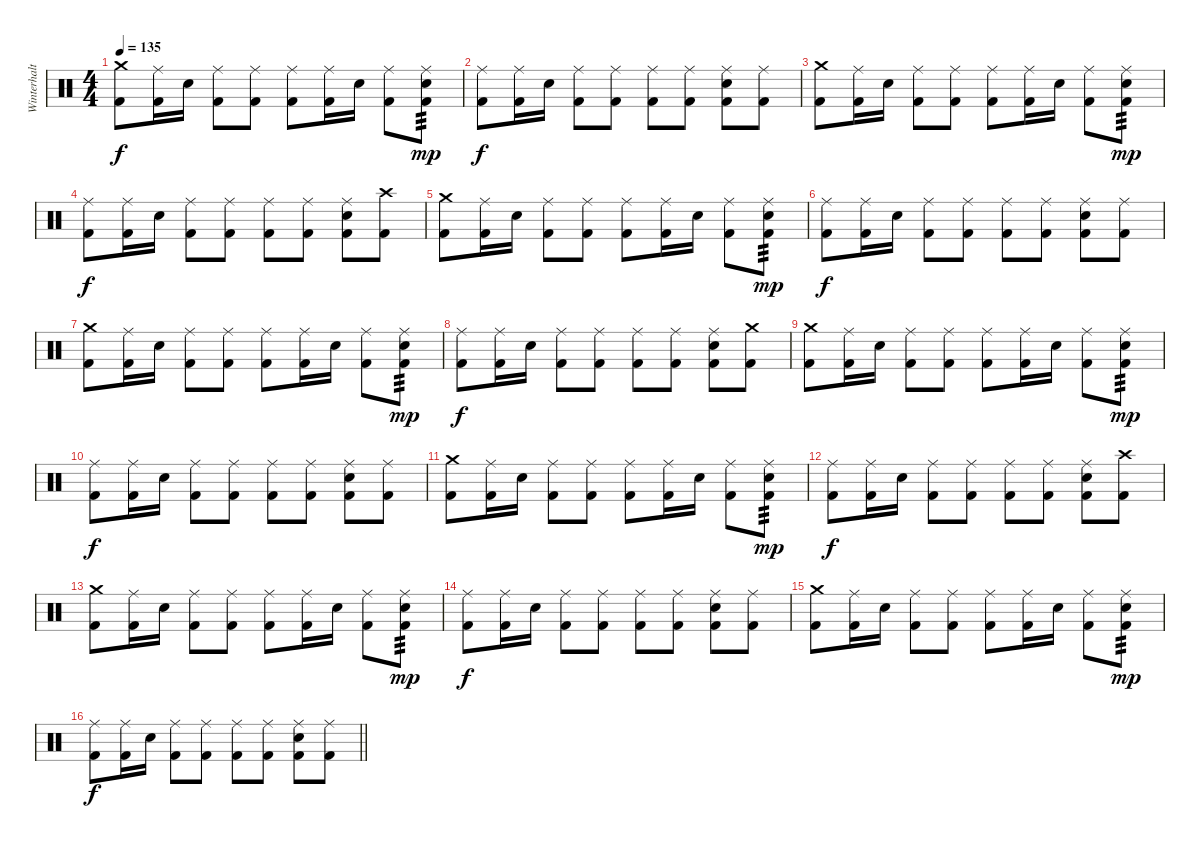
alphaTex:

\track ("Winterhalter" "Winterhalt") {instrument percussion}
\staff {score}
\articulation defaults
\ts (4 4)
\tempo 135
\clef neutral
\ks c
("Crash medium (hit)" "Kick (hit) 2").8{dy f} ("Ride (middle)" "Kick (hit) 2").16 "Snare (hit) 2".16 ("Ride (middle)" "Kick (hit) 2").8 ("Ride (middle)" "Kick (hit) 2").8 ("Ride (middle)" "Kick (hit) 2").8 ("Ride (middle)" "Kick (hit) 2").16 "Snare (hit) 2".16 ("Ride (middle)" "Kick (hit) 2").8 ("Ride (middle)" "Snare (hit) 2" "Kick (hit) 2").8{tp 3 dy mp} |
("Ride (middle)" "Kick (hit) 2").8{dy f} ("Ride (middle)" "Kick (hit) 2").16 "Snare (hit) 2".16 ("Ride (middle)" "Kick (hit) 2").8 ("Ride (middle)" "Kick (hit) 2").8 ("Ride (middle)" "Kick (hit) 2").8 ("Ride (middle)" "Kick (hit) 2").8 ("Ride (middle)" "Snare (hit) 2" "Kick (hit) 2").8 ("Ride (middle)" "Kick (hit) 2").8 |
("Crash medium (hit)" "Kick (hit) 2").8 ("Ride (middle)" "Kick (hit) 2").16 "Snare (hit) 2".16 ("Ride (middle)" "Kick (hit) 2").8 ("Ride (middle)" "Kick (hit) 2").8 ("Ride (middle)" "Kick (hit) 2").8 ("Ride (middle)" "Kick (hit) 2").16 "Snare (hit) 2".16 ("Ride (middle)" "Kick (hit) 2").8 ("Ride (middle)" "Snare (hit) 2" "Kick (hit) 2").8{tp 3 dy mp} |
("Ride (middle)" "Kick (hit) 2").8{dy f} ("Ride (middle)" "Kick (hit) 2").16 "Snare (hit) 2".16 ("Ride (middle)" "Kick (hit) 2").8 ("Ride (middle)" "Kick (hit) 2").8 ("Ride (middle)" "Kick (hit) 2").8 ("Ride (middle)" "Kick (hit) 2").8 ("Ride (middle)" "Snare (hit) 2" "Kick (hit) 2").8 ("Crash high (hit)" "Kick (hit) 2").8 |
("Crash medium (hit)" "Kick (hit) 2").8 ("Ride (middle)" "Kick (hit) 2").16 "Snare (hit) 2".16 ("Ride (middle)" "Kick (hit) 2").8 ("Ride (middle)" "Kick (hit) 2").8 ("Ride (middle)" "Kick (hit) 2").8 ("Ride (middle)" "Kick (hit) 2").16 "Snare (hit) 2".16 ("Ride (middle)" "Kick (hit) 2").8 ("Ride (middle)" "Snare (hit) 2" "Kick (hit) 2").8{tp 3 dy mp} |
("Ride (middle)" "Kick (hit) 2").8{dy f} ("Ride (middle)" "Kick (hit) 2").16 "Snare (hit) 2".16 ("Ride (middle)" "Kick (hit) 2").8 ("Ride (middle)" "Kick (hit) 2").8 ("Ride (middle)" "Kick (hit) 2").8 ("Ride (middle)" "Kick (hit) 2").8 ("Ride (middle)" "Snare (hit) 2" "Kick (hit) 2").8 ("Ride (middle)" "Kick (hit) 2").8 |
("Crash medium (hit)" "Kick (hit) 2").8 ("Ride (middle)" "Kick (hit) 2").16 "Snare (hit) 2".16 ("Ride (middle)" "Kick (hit) 2").8 ("Ride (middle)" "Kick (hit) 2").8 ("Ride (middle)" "Kick (hit) 2").8 ("Ride (middle)" "Kick (hit) 2").16 "Snare (hit) 2".16 ("Ride (middle)" "Kick (hit) 2").8 ("Ride (middle)" "Snare (hit) 2" "Kick (hit) 2").8{tp 3 dy mp} |
("Ride (middle)" "Kick (hit) 2").8{dy f} ("Ride (middle)" "Kick (hit) 2").16 "Snare (hit) 2".16 ("Ride (middle)" "Kick (hit) 2").8 ("Ride (middle)" "Kick (hit) 2").8 ("Ride (middle)" "Kick (hit) 2").8 ("Ride (middle)" "Kick (hit) 2").8 ("Ride (middle)" "Snare (hit) 2" "Kick (hit) 2").8 ("Crash medium (hit)" "Kick (hit) 2").8 |
("Crash medium (hit)" "Kick (hit) 2").8 ("Ride (middle)" "Kick (hit) 2").16 "Snare (hit) 2".16 ("Ride (middle)" "Kick (hit) 2").8 ("Ride (middle)" "Kick (hit) 2").8 ("Ride (middle)" "Kick (hit) 2").8 ("Ride (middle)" "Kick (hit) 2").16 "Snare (hit) 2".16 ("Ride (middle)" "Kick (hit) 2").8 ("Ride (middle)" "Snare (hit) 2" "Kick (hit) 2").8{tp 3 dy mp} |
("Ride (middle)" "Kick (hit) 2").8{dy f} ("Ride (middle)" "Kick (hit) 2").16 "Snare (hit) 2".16 ("Ride (middle)" "Kick (hit) 2").8 ("Ride (middle)" "Kick (hit) 2").8 ("Ride (middle)" "Kick (hit) 2").8 ("Ride (middle)" "Kick (hit) 2").8 ("Ride (middle)" "Snare (hit) 2" "Kick (hit) 2").8 ("Ride (middle)" "Kick (hit) 2").8 |
("Crash medium (hit)" "Kick (hit) 2").8 ("Ride (middle)" "Kick (hit) 2").16 "Snare (hit) 2".16 ("Ride (middle)" "Kick (hit) 2").8 ("Ride (middle)" "Kick (hit) 2").8 ("Ride (middle)" "Kick (hit) 2").8 ("Ride (middle)" "Kick (hit) 2").16 "Snare (hit) 2".16 ("Ride (middle)" "Kick (hit) 2").8 ("Ride (middle)" "Snare (hit) 2" "Kick (hit) 2").8{tp 3 dy mp} |
("Ride (middle)" "Kick (hit) 2").8{dy f} ("Ride (middle)" "Kick (hit) 2").16 "Snare (hit) 2".16 ("Ride (middle)" "Kick (hit) 2").8 ("Ride (middle)" "Kick (hit) 2").8 ("Ride (middle)" "Kick (hit) 2").8 ("Ride (middle)" "Kick (hit) 2").8 ("Ride (middle)" "Snare (hit) 2" "Kick (hit) 2").8 ("Crash high (hit)" "Kick (hit) 2").8 |
("Crash medium (hit)" "Kick (hit) 2").8 ("Ride (middle)" "Kick (hit) 2").16 "Snare (hit) 2".16 ("Ride (middle)" "Kick (hit) 2").8 ("Ride (middle)" "Kick (hit) 2").8 ("Ride (middle)" "Kick (hit) 2").8 ("Ride (middle)" "Kick (hit) 2").16 "Snare (hit) 2".16 ("Ride (middle)" "Kick (hit) 2").8 ("Ride (middle)" "Snare (hit) 2" "Kick (hit) 2").8{tp 3 dy mp} |
("Ride (middle)" "Kick (hit) 2").8{dy f} ("Ride (middle)" "Kick (hit) 2").16 "Snare (hit) 2".16 ("Ride (middle)" "Kick (hit) 2").8 ("Ride (middle)" "Kick (hit) 2").8 ("Ride (middle)" "Kick (hit) 2").8 ("Ride (middle)" "Kick (hit) 2").8 ("Ride (middle)" "Snare (hit) 2" "Kick (hit) 2").8 ("Ride (middle)" "Kick (hit) 2").8 |
("Crash medium (hit)" "Kick (hit) 2").8 ("Ride (middle)" "Kick (hit) 2").16 "Snare (hit) 2".16 ("Ride (middle)" "Kick (hit) 2").8 ("Ride (middle)" "Kick (hit) 2").8 ("Ride (middle)" "Kick (hit) 2").8 ("Ride (middle)" "Kick (hit) 2").16 "Snare (hit) 2".16 ("Ride (middle)" "Kick (hit) 2").8 ("Ride (middle)" "Snare (hit) 2" "Kick (hit) 2").8{tp 3 dy mp} |
\barLineRight lightlight
("Ride (middle)" "Kick (hit) 2").8{dy f} ("Ride (middle)" "Kick (hit) 2").16 "Snare (hit) 2".16 ("Ride (middle)" "Kick (hit) 2").8 ("Ride (middle)" "Kick (hit) 2").8 ("Ride (middle)" "Kick (hit) 2").8 ("Ride (middle)" "Kick (hit) 2").8 ("Ride (middle)" "Snare (hit) 2" "Kick (hit) 2").8 ("Ride (middle)" "Kick (hit) 2").8
